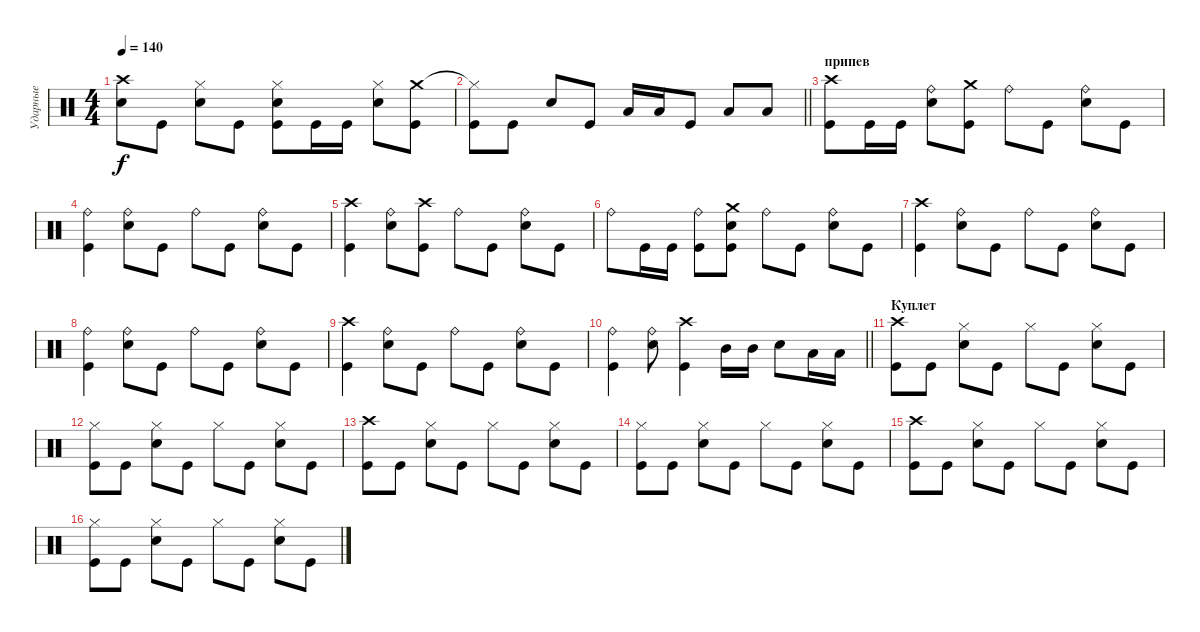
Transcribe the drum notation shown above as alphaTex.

\track ("Ударные" "Ударные") {instrument percussion}
\staff {score}
\articulation defaults
\ts (4 4)
\tempo 140
\clef neutral
\ks c
("Crash high (hit)" "Electric Snare (hit)").8{dy f} "Kick (hit)".8 ("Hi-Hat (closed)" "Electric Snare (hit)").8 "Kick (hit)".8 ("Hi-Hat (closed)" "Electric Snare (hit)" "Kick (hit)").8 "Kick (hit)".16 "Kick (hit)".16 ("Hi-Hat (closed)" "Electric Snare (hit)").8 ("Crash medium (hit)" "Kick (hit)").8 |
\barLineRight lightlight
("Hi-Hat (closed)"{t} "Kick (hit)").8 "Kick (hit)".8 "Electric Snare (hit)".8 "Kick (hit)".8 "Low Tom (hit)".16 "Low Tom (hit)".16 "Kick (hit)".8 "Low Tom (hit)".8 "Low Tom (hit)".8 |
\section ("" "припев")
("Crash high (hit)" "Kick (hit)").8 "Kick (hit)".16 "Kick (hit)".16 ("Ride (bell)" "Electric Snare (hit)").8 ("Crash medium (hit)" "Kick (hit)").8 "Ride (bell)".8 "Kick (hit)".8 ("Ride (bell)" "Electric Snare (hit)").8 "Kick (hit)".8 |
("Ride (bell)" "Kick (hit)").4 ("Ride (bell)" "Electric Snare (hit)").8 "Kick (hit)".8 "Ride (bell)".8 "Kick (hit)".8 ("Ride (bell)" "Electric Snare (hit)").8 "Kick (hit)".8 |
("Crash high (hit)" "Kick (hit)").4 ("Ride (bell)" "Electric Snare (hit)").8 ("Crash high (hit)" "Kick (hit)").8 "Ride (bell)".8 "Kick (hit)".8 ("Ride (bell)" "Electric Snare (hit)").8 "Kick (hit)".8 |
"Ride (bell)".8 "Kick (hit)".16 "Kick (hit)".16 ("Ride (bell)" "Kick (hit)").8 ("Crash medium (hit)" "Electric Snare (hit)" "Kick (hit)").8 "Ride (bell)".8 "Kick (hit)".8 ("Ride (bell)" "Electric Snare (hit)").8 "Kick (hit)".8 |
("Crash high (hit)" "Kick (hit)").4 ("Ride (bell)" "Electric Snare (hit)").8 "Kick (hit)".8 "Ride (bell)".8 "Kick (hit)".8 ("Ride (bell)" "Electric Snare (hit)").8 "Kick (hit)".8 |
("Ride (bell)" "Kick (hit)").4 ("Ride (bell)" "Electric Snare (hit)").8 "Kick (hit)".8 "Ride (bell)".8 "Kick (hit)".8 ("Ride (bell)" "Electric Snare (hit)").8 "Kick (hit)".8 |
("Crash high (hit)" "Kick (hit)").4 ("Ride (bell)" "Electric Snare (hit)").8 "Kick (hit)".8 "Ride (bell)".8 "Kick (hit)".8 ("Ride (bell)" "Electric Snare (hit)").8 "Kick (hit)".8 |
\barLineRight lightlight
("Ride (bell)" "Kick (hit)").4 ("Ride (bell)" "Electric Snare (hit)").8 ("Crash high (hit)" "Kick (hit)").4 "Mid Tom (hit)".16 "Mid Tom (hit)".16 "Electric Snare (hit)".8 "Low Tom (hit)".16 "Low Tom (hit)".16 |
\section ("" "Куплет")
("Crash high (hit)" "Kick (hit)").8 "Kick (hit)".8 ("Hi-Hat (closed)" "Electric Snare (hit)").8 "Kick (hit)".8 "Hi-Hat (closed)".8 "Kick (hit)".8 ("Hi-Hat (closed)" "Electric Snare (hit)").8 "Kick (hit)".8 |
("Hi-Hat (closed)" "Kick (hit)").8 "Kick (hit)".8 ("Hi-Hat (closed)" "Electric Snare (hit)").8 "Kick (hit)".8 "Hi-Hat (closed)".8 "Kick (hit)".8 ("Hi-Hat (closed)" "Electric Snare (hit)").8 "Kick (hit)".8 |
("Crash high (hit)" "Kick (hit)").8 "Kick (hit)".8 ("Hi-Hat (closed)" "Electric Snare (hit)").8 "Kick (hit)".8 "Hi-Hat (closed)".8 "Kick (hit)".8 ("Hi-Hat (closed)" "Electric Snare (hit)").8 "Kick (hit)".8 |
("Hi-Hat (closed)" "Kick (hit)").8 "Kick (hit)".8 ("Hi-Hat (closed)" "Electric Snare (hit)").8 "Kick (hit)".8 "Hi-Hat (closed)".8 "Kick (hit)".8 ("Hi-Hat (closed)" "Electric Snare (hit)").8 "Kick (hit)".8 |
("Crash high (hit)" "Kick (hit)").8 "Kick (hit)".8 ("Hi-Hat (closed)" "Electric Snare (hit)").8 "Kick (hit)".8 "Hi-Hat (closed)".8 "Kick (hit)".8 ("Hi-Hat (closed)" "Electric Snare (hit)").8 "Kick (hit)".8 |
("Hi-Hat (closed)" "Kick (hit)").8 "Kick (hit)".8 ("Hi-Hat (closed)" "Electric Snare (hit)").8 "Kick (hit)".8 "Hi-Hat (closed)".8 "Kick (hit)".8 ("Hi-Hat (closed)" "Electric Snare (hit)").8 "Kick (hit)".8
